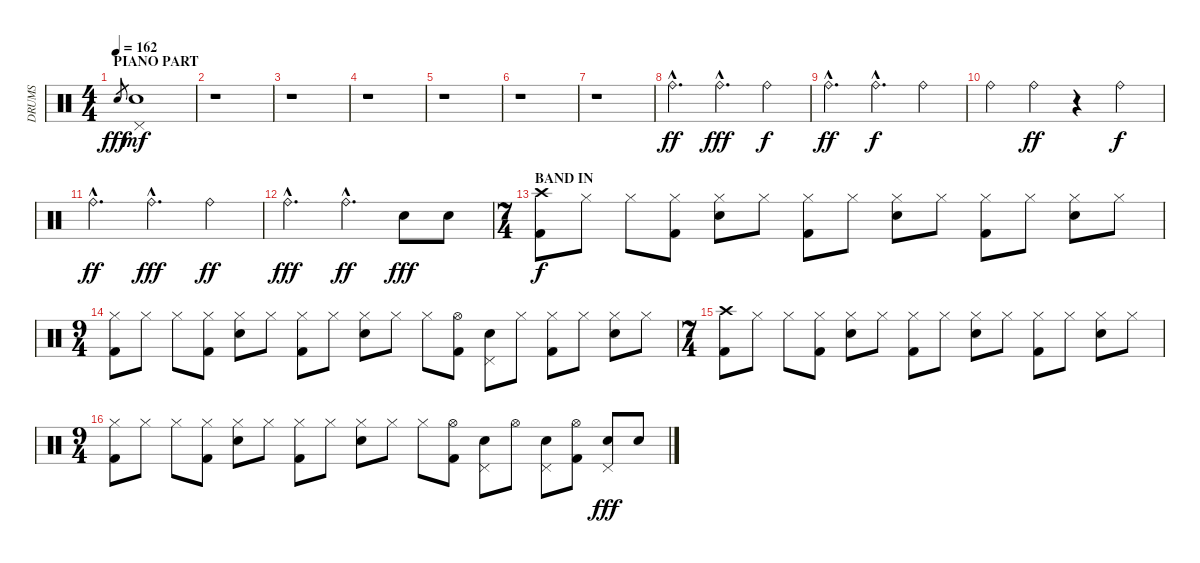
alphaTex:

\track ("DRUMS" "DRUMS") {instrument percussion}
\staff {score}
\articulation defaults
\ts (4 4)
\section ("" "PIANO PART")
\tempo 162
\clef neutral
\ks c "Electric Snare (hit)"{h}.8{gr dy fff}
("Electric Snare (hit)" "Pedal Hi-Hat (hit)").1{dy mf} |
r.1 |
r.1 |
r.1 |
r.1 |
r.1 |
r.1 |
"Ride (bell)"{hac}.4{d dy ff} "Ride (bell)"{hac}.4{d dy fff} "Ride (bell)".4{dy f} |
"Ride (bell)"{hac}.4{d dy ff} "Ride (bell)"{hac}.4{d dy f} "Ride (bell)".4 |
"Ride (bell)".4 "Ride (bell)".4{dy ff} r.4 "Ride (bell)".4{dy f} |
"Ride (bell)"{hac}.4{d dy ff} "Ride (bell)"{hac}.4{d dy fff} "Ride (bell)".4{dy ff} |
"Ride (bell)"{hac}.4{d dy fff} "Ride (bell)"{hac}.4{d dy ff} "Electric Snare (hit)".8{dy fff} "Electric Snare (hit)".8 |
\ts (7 4)
\section ("" "BAND IN")
("Crash high (hit)" "Kick (hit) 2").8{dy f} "Hi-Hat (closed)".8 "Hi-Hat (closed)".8 ("Hi-Hat (closed)" "Kick (hit) 2").8 ("Hi-Hat (closed)" "Electric Snare (hit)").8 "Hi-Hat (closed)".8 ("Hi-Hat (closed)" "Kick (hit) 2").8 "Hi-Hat (closed)".8 ("Hi-Hat (closed)" "Electric Snare (hit)").8 "Hi-Hat (closed)".8 ("Hi-Hat (closed)" "Kick (hit) 2").8 "Hi-Hat (closed)".8 ("Hi-Hat (closed)" "Electric Snare (hit)").8 "Hi-Hat (closed)".8 |
\ts (9 4)
("Hi-Hat (closed)" "Kick (hit) 2").8 "Hi-Hat (closed)".8 "Hi-Hat (closed)".8 ("Hi-Hat (closed)" "Kick (hit) 2").8 ("Hi-Hat (closed)" "Electric Snare (hit)").8 "Hi-Hat (closed)".8 ("Hi-Hat (closed)" "Kick (hit) 2").8 "Hi-Hat (closed)".8 ("Hi-Hat (closed)" "Electric Snare (hit)").8 "Hi-Hat (closed)".8 "Hi-Hat (closed)".8 ("Hi-Hat (open)" "Kick (hit) 2").8 ("Electric Snare (hit)" "Pedal Hi-Hat (hit)").8 "Hi-Hat (closed)".8 ("Hi-Hat (closed)" "Kick (hit) 2").8 "Hi-Hat (closed)".8 ("Hi-Hat (closed)" "Electric Snare (hit)").8 "Hi-Hat (closed)".8 |
\ts (7 4)
("Crash high (hit)" "Kick (hit) 2").8 "Hi-Hat (closed)".8 "Hi-Hat (closed)".8 ("Hi-Hat (closed)" "Kick (hit) 2").8 ("Hi-Hat (closed)" "Electric Snare (hit)").8 "Hi-Hat (closed)".8 ("Hi-Hat (closed)" "Kick (hit) 2").8 "Hi-Hat (closed)".8 ("Hi-Hat (closed)" "Electric Snare (hit)").8 "Hi-Hat (closed)".8 ("Hi-Hat (closed)" "Kick (hit) 2").8 "Hi-Hat (closed)".8 ("Hi-Hat (closed)" "Electric Snare (hit)").8 "Hi-Hat (closed)".8 |
\ts (9 4)
("Hi-Hat (closed)" "Kick (hit) 2").8 "Hi-Hat (closed)".8 "Hi-Hat (closed)".8 ("Hi-Hat (closed)" "Kick (hit) 2").8 ("Hi-Hat (closed)" "Electric Snare (hit)").8 "Hi-Hat (closed)".8 ("Hi-Hat (closed)" "Kick (hit) 2").8 "Hi-Hat (closed)".8 ("Hi-Hat (closed)" "Electric Snare (hit)").8 "Hi-Hat (closed)".8 "Hi-Hat (closed)".8 ("Hi-Hat (open)" "Kick (hit) 2").8 ("Electric Snare (hit)" "Pedal Hi-Hat (hit)").8 "Hi-Hat (open)".8 ("Electric Snare (hit)" "Pedal Hi-Hat (hit)").8 ("Hi-Hat (open)" "Kick (hit) 2").8 ("Electric Snare (hit)" "Pedal Hi-Hat (hit)").8{dy fff} "Electric Snare (hit)".8
